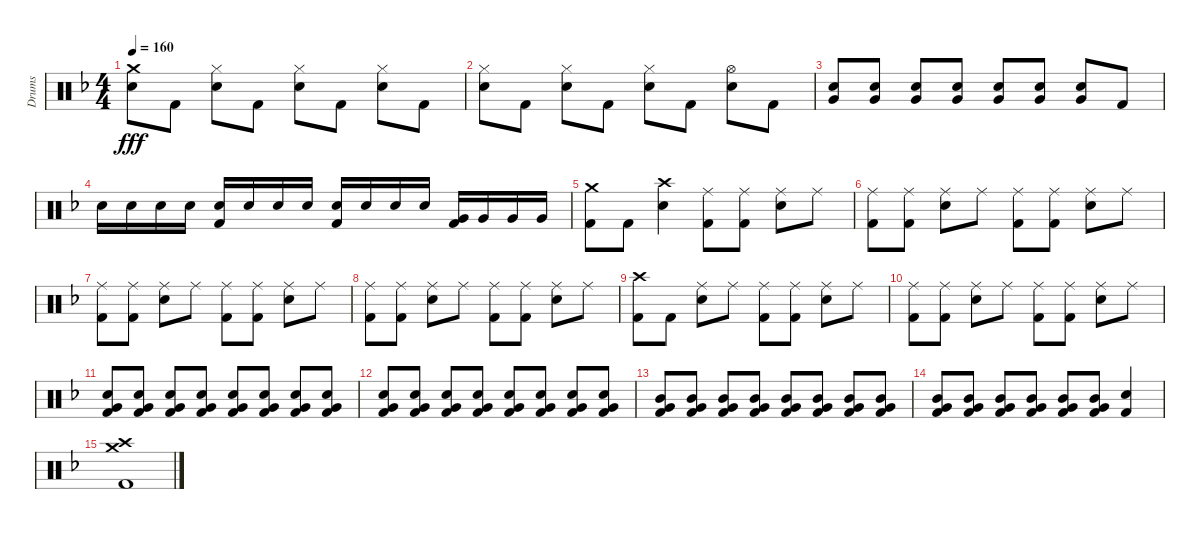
\track ("Drums" "Drums") {instrument percussion}
\staff {score}
\articulation defaults
\ts (4 4)
\tempo 160
\clef neutral
\ks f
("Crash medium (hit)" "Electric Snare (hit)").8{dy fff} "Kick (hit) 2".8 ("Hi-Hat (closed)" "Electric Snare (hit)").8 "Kick (hit) 2".8 ("Hi-Hat (closed)" "Electric Snare (hit)").8 "Kick (hit) 2".8 ("Hi-Hat (closed)" "Electric Snare (hit)").8 "Kick (hit) 2".8 |
("Hi-Hat (closed)" "Electric Snare (hit)").8 "Kick (hit) 2".8 ("Hi-Hat (closed)" "Electric Snare (hit)").8 "Kick (hit) 2".8 ("Hi-Hat (closed)" "Electric Snare (hit)").8 "Kick (hit) 2".8 ("Hi-Hat (open)" "Electric Snare (hit)").8 "Kick (hit) 2".8 |
("Electric Snare (hit)" "Very Low Tom (hit)").8 ("Electric Snare (hit)" "Very Low Tom (hit)").8 ("Electric Snare (hit)" "Very Low Tom (hit)").8 ("Electric Snare (hit)" "Very Low Tom (hit)").8 ("Electric Snare (hit)" "Very Low Tom (hit)").8 ("Electric Snare (hit)" "Very Low Tom (hit)").8 ("Electric Snare (hit)" "Very Low Tom (hit)").8 "Kick (hit) 2".8 |
"Electric Snare (hit)".16 "Electric Snare (hit)".16 "Electric Snare (hit)".16 "Electric Snare (hit)".16 ("Electric Snare (hit)" "Kick (hit) 2").16 "Electric Snare (hit)".16 "Electric Snare (hit)".16 "Electric Snare (hit)".16 ("Electric Snare (hit)" "Kick (hit) 2").16 "Electric Snare (hit)".16 "Electric Snare (hit)".16 "Electric Snare (hit)".16 ("Very Low Tom (hit)" "Kick (hit) 2").16 "Very Low Tom (hit)".16 "Very Low Tom (hit)".16 "Very Low Tom (hit)".16 |
("Crash medium (hit)" "Kick (hit) 2").8 "Kick (hit) 2".8 ("Crash high (hit)" "Electric Snare (hit)").4 ("Ride (middle)" "Kick (hit) 2").8 ("Ride (middle)" "Kick (hit) 2").8 ("Ride (middle)" "Electric Snare (hit)").8 "Ride (middle)".8 |
("Ride (middle)" "Kick (hit) 2").8 ("Ride (middle)" "Kick (hit) 2").8 ("Ride (middle)" "Electric Snare (hit)").8 "Ride (middle)".8 ("Ride (middle)" "Kick (hit) 2").8 ("Ride (middle)" "Kick (hit) 2").8 ("Ride (middle)" "Electric Snare (hit)").8 "Ride (middle)".8 |
("Ride (middle)" "Kick (hit) 2").8 ("Ride (middle)" "Kick (hit) 2").8 ("Ride (middle)" "Electric Snare (hit)").8 "Ride (middle)".8 ("Ride (middle)" "Kick (hit) 2").8 ("Ride (middle)" "Kick (hit) 2").8 ("Ride (middle)" "Electric Snare (hit)").8 "Ride (middle)".8 |
("Ride (middle)" "Kick (hit) 2").8 ("Ride (middle)" "Kick (hit) 2").8 ("Ride (middle)" "Electric Snare (hit)").8 "Ride (middle)".8 ("Ride (middle)" "Kick (hit) 2").8 ("Ride (middle)" "Kick (hit) 2").8 ("Ride (middle)" "Electric Snare (hit)").8 "Ride (middle)".8 |
("Crash high (hit)" "Kick (hit) 2").8 "Kick (hit) 2".8 ("Ride (middle)" "Electric Snare (hit)").8 "Ride (middle)".8 ("Ride (middle)" "Kick (hit) 2").8 ("Ride (middle)" "Kick (hit) 2").8 ("Ride (middle)" "Electric Snare (hit)").8 "Ride (middle)".8 |
("Ride (middle)" "Kick (hit) 2").8 ("Ride (middle)" "Kick (hit) 2").8 ("Ride (middle)" "Electric Snare (hit)").8 "Ride (middle)".8 ("Ride (middle)" "Kick (hit) 2").8 ("Ride (middle)" "Kick (hit) 2").8 ("Ride (middle)" "Electric Snare (hit)").8 "Ride (middle)".8 |
("Electric Snare (hit)" "Very Low Tom (hit)" "Kick (hit) 2").8 ("Electric Snare (hit)" "Very Low Tom (hit)" "Kick (hit) 2").8 ("Electric Snare (hit)" "Very Low Tom (hit)" "Kick (hit) 2").8 ("Electric Snare (hit)" "Very Low Tom (hit)" "Kick (hit) 2").8 ("Electric Snare (hit)" "Very Low Tom (hit)" "Kick (hit) 2").8 ("Electric Snare (hit)" "Very Low Tom (hit)" "Kick (hit) 2").8 ("Electric Snare (hit)" "Very Low Tom (hit)" "Kick (hit) 2").8 ("Electric Snare (hit)" "Very Low Tom (hit)" "Kick (hit) 2").8 |
("Electric Snare (hit)" "Very Low Tom (hit)" "Kick (hit) 2").8 ("Electric Snare (hit)" "Very Low Tom (hit)" "Kick (hit) 2").8 ("Electric Snare (hit)" "Very Low Tom (hit)" "Kick (hit) 2").8 ("Electric Snare (hit)" "Very Low Tom (hit)" "Kick (hit) 2").8 ("Electric Snare (hit)" "Very Low Tom (hit)" "Kick (hit) 2").8 ("Electric Snare (hit)" "Very Low Tom (hit)" "Kick (hit) 2").8 ("Electric Snare (hit)" "Very Low Tom (hit)" "Kick (hit) 2").8 ("Electric Snare (hit)" "Very Low Tom (hit)" "Kick (hit) 2").8 |
("Mid Tom (hit)" "Very Low Tom (hit)" "Kick (hit) 2").8 ("Mid Tom (hit)" "Very Low Tom (hit)" "Kick (hit) 2").8 ("Mid Tom (hit)" "Very Low Tom (hit)" "Kick (hit) 2").8 ("Mid Tom (hit)" "Very Low Tom (hit)" "Kick (hit) 2").8 ("Mid Tom (hit)" "Very Low Tom (hit)" "Kick (hit) 2").8 ("Mid Tom (hit)" "Very Low Tom (hit)" "Kick (hit) 2").8 ("Mid Tom (hit)" "Very Low Tom (hit)" "Kick (hit) 2").8 ("Mid Tom (hit)" "Very Low Tom (hit)" "Kick (hit) 2").8 |
("Mid Tom (hit)" "Very Low Tom (hit)" "Kick (hit) 2").8 ("Mid Tom (hit)" "Very Low Tom (hit)" "Kick (hit) 2").8 ("Mid Tom (hit)" "Very Low Tom (hit)" "Kick (hit) 2").8 ("Mid Tom (hit)" "Very Low Tom (hit)" "Kick (hit) 2").8 ("Mid Tom (hit)" "Very Low Tom (hit)" "Kick (hit) 2").8 ("Mid Tom (hit)" "Very Low Tom (hit)" "Kick (hit) 2").8 ("Electric Snare (hit)" "Kick (hit) 2").4 |
("Crash high (hit)" "Crash medium (hit)" "Kick (hit) 2").1
